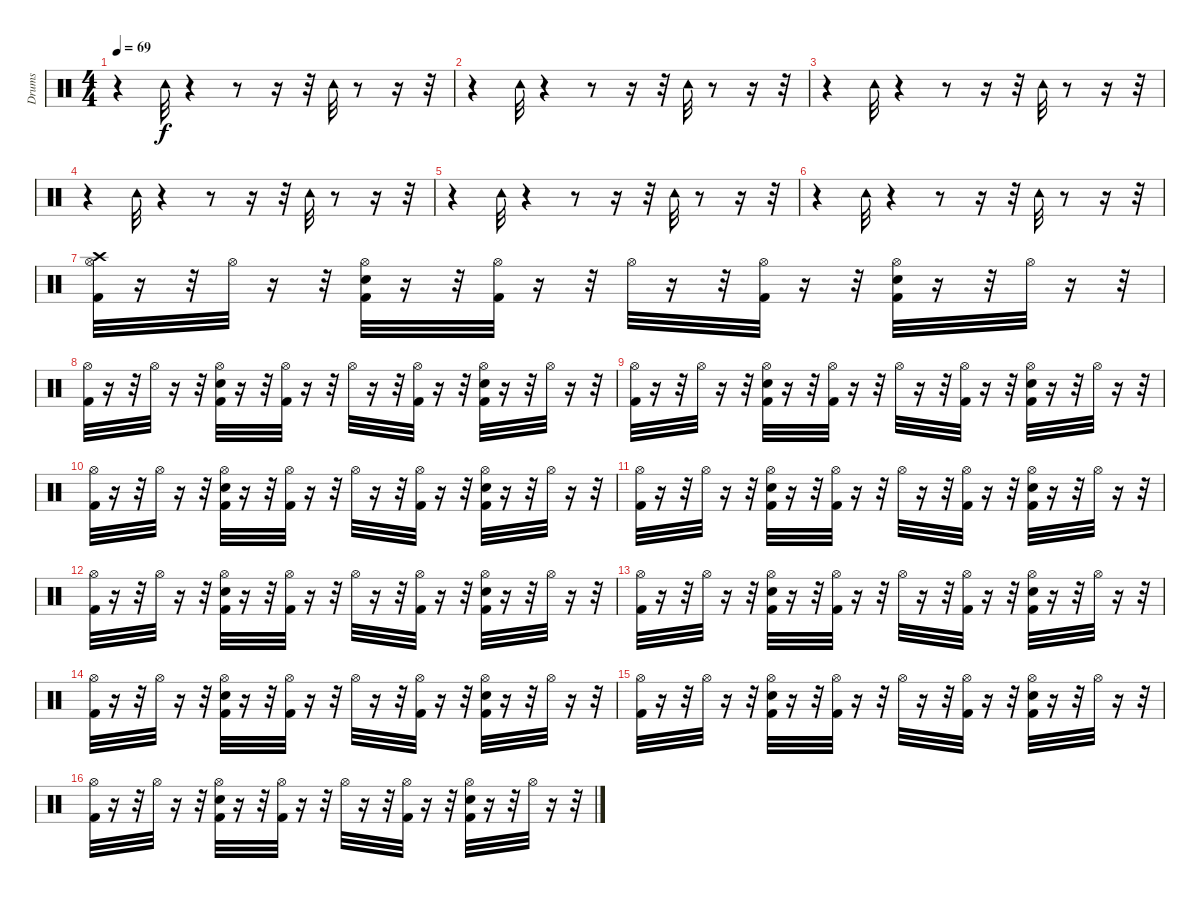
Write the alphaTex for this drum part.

\track ("Drums" "Drums") {instrument percussion}
\staff {score}
\articulation defaults
\ts (4 4)
\tempo 69
\clef neutral
\ks c
r.4{dy f} "Tambourine (hit)".32 r.4 r.8 r.16 r.32 "Tambourine (hit)".32 r.8 r.16 r.32 |
r.4 "Tambourine (hit)".32 r.4 r.8 r.16 r.32 "Tambourine (hit)".32 r.8 r.16 r.32 |
r.4 "Tambourine (hit)".32 r.4 r.8 r.16 r.32 "Tambourine (hit)".32 r.8 r.16 r.32 |
r.4 "Tambourine (hit)".32 r.4 r.8 r.16 r.32 "Tambourine (hit)".32 r.8 r.16 r.32 |
r.4 "Tambourine (hit)".32 r.4 r.8 r.16 r.32 "Tambourine (hit)".32 r.8 r.16 r.32 |
r.4 "Tambourine (hit)".32 r.4 r.8 r.16 r.32 "Tambourine (hit)".32 r.8 r.16 r.32 |
("Crash high (hit)" "Hi-Hat (open)" "Kick (hit) 2").32 r.16 r.32 "Hi-Hat (open)".32 r.16 r.32 ("Electric Snare (hit)" "Hi-Hat (open)" "Kick (hit) 2").32 r.16 r.32 ("Kick (hit) 2" "Hi-Hat (open)").32 r.16 r.32 "Hi-Hat (open)".32 r.16 r.32 ("Kick (hit) 2" "Hi-Hat (open)").32 r.16 r.32 ("Electric Snare (hit)" "Kick (hit) 2" "Hi-Hat (open)").32 r.16 r.32 "Hi-Hat (open)".32 r.16 r.32 |
("Hi-Hat (open)" "Kick (hit) 2").32 r.16 r.32 "Hi-Hat (open)".32 r.16 r.32 ("Electric Snare (hit)" "Hi-Hat (open)" "Kick (hit) 2").32 r.16 r.32 ("Kick (hit) 2" "Hi-Hat (open)").32 r.16 r.32 "Hi-Hat (open)".32 r.16 r.32 ("Kick (hit) 2" "Hi-Hat (open)").32 r.16 r.32 ("Electric Snare (hit)" "Kick (hit) 2" "Hi-Hat (open)").32 r.16 r.32 "Hi-Hat (open)".32 r.16 r.32 |
("Hi-Hat (open)" "Kick (hit) 2").32 r.16 r.32 "Hi-Hat (open)".32 r.16 r.32 ("Electric Snare (hit)" "Hi-Hat (open)" "Kick (hit) 2").32 r.16 r.32 ("Kick (hit) 2" "Hi-Hat (open)").32 r.16 r.32 "Hi-Hat (open)".32 r.16 r.32 ("Kick (hit) 2" "Hi-Hat (open)").32 r.16 r.32 ("Electric Snare (hit)" "Kick (hit) 2" "Hi-Hat (open)").32 r.16 r.32 "Hi-Hat (open)".32 r.16 r.32 |
("Hi-Hat (open)" "Kick (hit) 2").32 r.16 r.32 "Hi-Hat (open)".32 r.16 r.32 ("Electric Snare (hit)" "Hi-Hat (open)" "Kick (hit) 2").32 r.16 r.32 ("Kick (hit) 2" "Hi-Hat (open)").32 r.16 r.32 "Hi-Hat (open)".32 r.16 r.32 ("Kick (hit) 2" "Hi-Hat (open)").32 r.16 r.32 ("Electric Snare (hit)" "Kick (hit) 2" "Hi-Hat (open)").32 r.16 r.32 "Hi-Hat (open)".32 r.16 r.32 |
("Hi-Hat (open)" "Kick (hit) 2").32 r.16 r.32 "Hi-Hat (open)".32 r.16 r.32 ("Electric Snare (hit)" "Hi-Hat (open)" "Kick (hit) 2").32 r.16 r.32 ("Kick (hit) 2" "Hi-Hat (open)").32 r.16 r.32 "Hi-Hat (open)".32 r.16 r.32 ("Kick (hit) 2" "Hi-Hat (open)").32 r.16 r.32 ("Electric Snare (hit)" "Kick (hit) 2" "Hi-Hat (open)").32 r.16 r.32 "Hi-Hat (open)".32 r.16 r.32 |
("Hi-Hat (open)" "Kick (hit) 2").32 r.16 r.32 "Hi-Hat (open)".32 r.16 r.32 ("Electric Snare (hit)" "Hi-Hat (open)" "Kick (hit) 2").32 r.16 r.32 ("Kick (hit) 2" "Hi-Hat (open)").32 r.16 r.32 "Hi-Hat (open)".32 r.16 r.32 ("Kick (hit) 2" "Hi-Hat (open)").32 r.16 r.32 ("Electric Snare (hit)" "Kick (hit) 2" "Hi-Hat (open)").32 r.16 r.32 "Hi-Hat (open)".32 r.16 r.32 |
("Hi-Hat (open)" "Kick (hit) 2").32 r.16 r.32 "Hi-Hat (open)".32 r.16 r.32 ("Electric Snare (hit)" "Hi-Hat (open)" "Kick (hit) 2").32 r.16 r.32 ("Kick (hit) 2" "Hi-Hat (open)").32 r.16 r.32 "Hi-Hat (open)".32 r.16 r.32 ("Kick (hit) 2" "Hi-Hat (open)").32 r.16 r.32 ("Electric Snare (hit)" "Kick (hit) 2" "Hi-Hat (open)").32 r.16 r.32 "Hi-Hat (open)".32 r.16 r.32 |
("Hi-Hat (open)" "Kick (hit) 2").32 r.16 r.32 "Hi-Hat (open)".32 r.16 r.32 ("Electric Snare (hit)" "Hi-Hat (open)" "Kick (hit) 2").32 r.16 r.32 ("Kick (hit) 2" "Hi-Hat (open)").32 r.16 r.32 "Hi-Hat (open)".32 r.16 r.32 ("Kick (hit) 2" "Hi-Hat (open)").32 r.16 r.32 ("Electric Snare (hit)" "Kick (hit) 2" "Hi-Hat (open)").32 r.16 r.32 "Hi-Hat (open)".32 r.16 r.32 |
("Hi-Hat (open)" "Kick (hit) 2").32 r.16 r.32 "Hi-Hat (open)".32 r.16 r.32 ("Electric Snare (hit)" "Hi-Hat (open)" "Kick (hit) 2").32 r.16 r.32 ("Kick (hit) 2" "Hi-Hat (open)").32 r.16 r.32 "Hi-Hat (open)".32 r.16 r.32 ("Kick (hit) 2" "Hi-Hat (open)").32 r.16 r.32 ("Electric Snare (hit)" "Kick (hit) 2" "Hi-Hat (open)").32 r.16 r.32 "Hi-Hat (open)".32 r.16 r.32 |
("Hi-Hat (open)" "Kick (hit) 2").32 r.16 r.32 "Hi-Hat (open)".32 r.16 r.32 ("Electric Snare (hit)" "Hi-Hat (open)" "Kick (hit) 2").32 r.16 r.32 ("Kick (hit) 2" "Hi-Hat (open)").32 r.16 r.32 "Hi-Hat (open)".32 r.16 r.32 ("Kick (hit) 2" "Hi-Hat (open)").32 r.16 r.32 ("Electric Snare (hit)" "Kick (hit) 2" "Hi-Hat (open)").32 r.16 r.32 "Hi-Hat (open)".32 r.16 r.32
